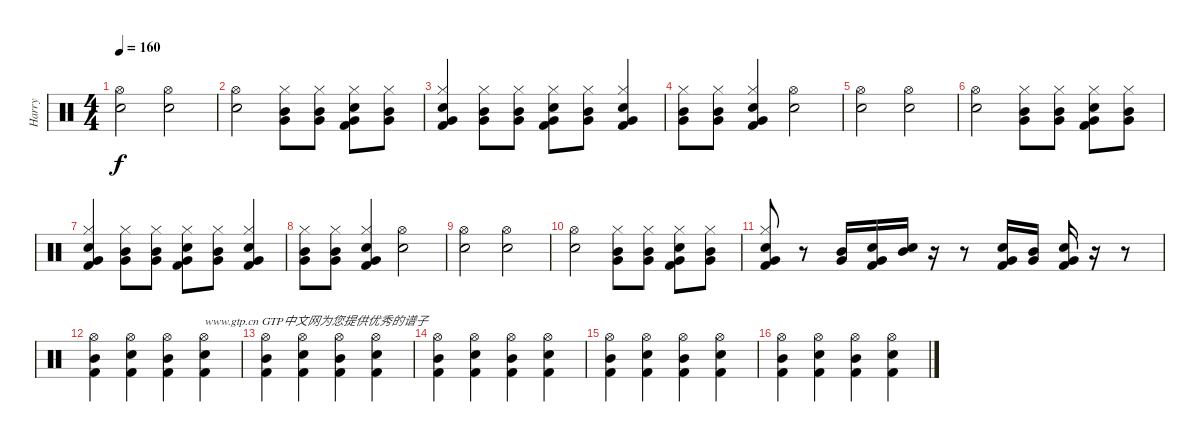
\track ("Harry" "Harry") {instrument percussion}
\staff {score}
\articulation defaults
\ts (4 4)
\tempo 160
\clef neutral
\ks c
("Hi-Hat (open)" "Snare (hit) 2").2{dy f} ("Hi-Hat (open)" "Snare (hit) 2").2 |
("Hi-Hat (open)" "Snare (hit) 2").2 ("Hi-Hat (closed)" "Very Low Tom (hit)" "Mid Tom (hit)").8 ("Hi-Hat (closed)" "Very Low Tom (hit)" "Mid Tom (hit)").8 ("Hi-Hat (closed)" "Very Low Tom (hit)" "Kick (hit) 2" "Snare (hit) 2").8 ("Hi-Hat (closed)" "Mid Tom (hit)" "Very Low Tom (hit)").8 |
("Hi-Hat (closed)" "Very Low Tom (hit)" "Kick (hit) 2" "Snare (hit) 2").4 ("Hi-Hat (closed)" "Very Low Tom (hit)" "Mid Tom (hit)").8 ("Hi-Hat (closed)" "Very Low Tom (hit)" "Mid Tom (hit)").8 ("Hi-Hat (closed)" "Very Low Tom (hit)" "Kick (hit) 2" "Snare (hit) 2").8 ("Hi-Hat (closed)" "Mid Tom (hit)" "Very Low Tom (hit)").8 ("Hi-Hat (closed)" "Very Low Tom (hit)" "Kick (hit) 2" "Snare (hit) 2").4 |
("Hi-Hat (closed)" "Very Low Tom (hit)" "Mid Tom (hit)").8 ("Hi-Hat (closed)" "Very Low Tom (hit)" "Mid Tom (hit)").8 ("Hi-Hat (closed)" "Very Low Tom (hit)" "Kick (hit) 2" "Snare (hit) 2").4 ("Hi-Hat (open)" "Snare (hit) 2").2 |
("Hi-Hat (open)" "Snare (hit) 2").2 ("Hi-Hat (open)" "Snare (hit) 2").2 |
("Hi-Hat (open)" "Snare (hit) 2").2 ("Hi-Hat (closed)" "Very Low Tom (hit)" "Mid Tom (hit)").8 ("Hi-Hat (closed)" "Very Low Tom (hit)" "Mid Tom (hit)").8 ("Hi-Hat (closed)" "Very Low Tom (hit)" "Kick (hit) 2" "Snare (hit) 2").8 ("Hi-Hat (closed)" "Mid Tom (hit)" "Very Low Tom (hit)").8 |
("Hi-Hat (closed)" "Very Low Tom (hit)" "Kick (hit) 2" "Snare (hit) 2").4 ("Hi-Hat (closed)" "Very Low Tom (hit)" "Mid Tom (hit)").8 ("Hi-Hat (closed)" "Very Low Tom (hit)" "Mid Tom (hit)").8 ("Hi-Hat (closed)" "Very Low Tom (hit)" "Kick (hit) 2" "Snare (hit) 2").8 ("Hi-Hat (closed)" "Mid Tom (hit)" "Very Low Tom (hit)").8 ("Hi-Hat (closed)" "Very Low Tom (hit)" "Kick (hit) 2" "Snare (hit) 2").4 |
("Hi-Hat (closed)" "Very Low Tom (hit)" "Mid Tom (hit)").8 ("Hi-Hat (closed)" "Very Low Tom (hit)" "Mid Tom (hit)").8 ("Hi-Hat (closed)" "Very Low Tom (hit)" "Kick (hit) 2" "Snare (hit) 2").4 ("Hi-Hat (open)" "Snare (hit) 2").2 |
("Hi-Hat (open)" "Snare (hit) 2").2 ("Hi-Hat (open)" "Snare (hit) 2").2 |
("Hi-Hat (open)" "Snare (hit) 2").2 ("Hi-Hat (closed)" "Very Low Tom (hit)" "Mid Tom (hit)").8 ("Hi-Hat (closed)" "Very Low Tom (hit)" "Mid Tom (hit)").8 ("Hi-Hat (closed)" "Very Low Tom (hit)" "Kick (hit) 2" "Snare (hit) 2").8 ("Hi-Hat (closed)" "Mid Tom (hit)" "Very Low Tom (hit)").8 |
("Hi-Hat (closed)" "Very Low Tom (hit)" "Kick (hit) 2" "Snare (hit) 2").8 r.8 ("Mid Tom (hit)" "Very Low Tom (hit)").16 ("Very Low Tom (hit)" "Kick (hit) 2" "Snare (hit) 2").16 ("Mid Tom (hit)" "Snare (hit) 2").16 r.16 r.8 ("Very Low Tom (hit)" "Kick (hit) 2" "Snare (hit) 2").16 ("Mid Tom (hit)" "Very Low Tom (hit)").16 ("Very Low Tom (hit)" "Kick (hit) 2" "Snare (hit) 2").16 r.16 r.8 |
("Hi-Hat (open)" "Mid Tom (hit)" "Kick (hit) 2").4 ("Hi-Hat (open)" "Kick (hit) 2" "Snare (hit) 2").4 ("Hi-Hat (open)" "Mid Tom (hit)" "Kick (hit) 2").4 ("Hi-Hat (open)" "Kick (hit) 2" "Snare (hit) 2").4{txt "www.gtp.cn GTP中文网为您提供优秀的谱子"} |
("Hi-Hat (open)" "Mid Tom (hit)" "Kick (hit) 2").4 ("Hi-Hat (open)" "Kick (hit) 2" "Snare (hit) 2").4 ("Hi-Hat (open)" "Mid Tom (hit)" "Kick (hit) 2").4 ("Hi-Hat (open)" "Kick (hit) 2" "Snare (hit) 2").4 |
("Hi-Hat (open)" "Mid Tom (hit)" "Kick (hit) 2").4 ("Hi-Hat (open)" "Kick (hit) 2" "Snare (hit) 2").4 ("Hi-Hat (open)" "Mid Tom (hit)" "Kick (hit) 2").4 ("Hi-Hat (open)" "Kick (hit) 2" "Snare (hit) 2").4 |
("Hi-Hat (open)" "Mid Tom (hit)" "Kick (hit) 2").4 ("Hi-Hat (open)" "Kick (hit) 2" "Snare (hit) 2").4 ("Hi-Hat (open)" "Mid Tom (hit)" "Kick (hit) 2").4 ("Hi-Hat (open)" "Kick (hit) 2" "Snare (hit) 2").4 |
("Hi-Hat (open)" "Mid Tom (hit)" "Kick (hit) 2").4 ("Hi-Hat (open)" "Kick (hit) 2" "Snare (hit) 2").4 ("Hi-Hat (open)" "Mid Tom (hit)" "Kick (hit) 2").4 ("Hi-Hat (open)" "Kick (hit) 2" "Snare (hit) 2").4
